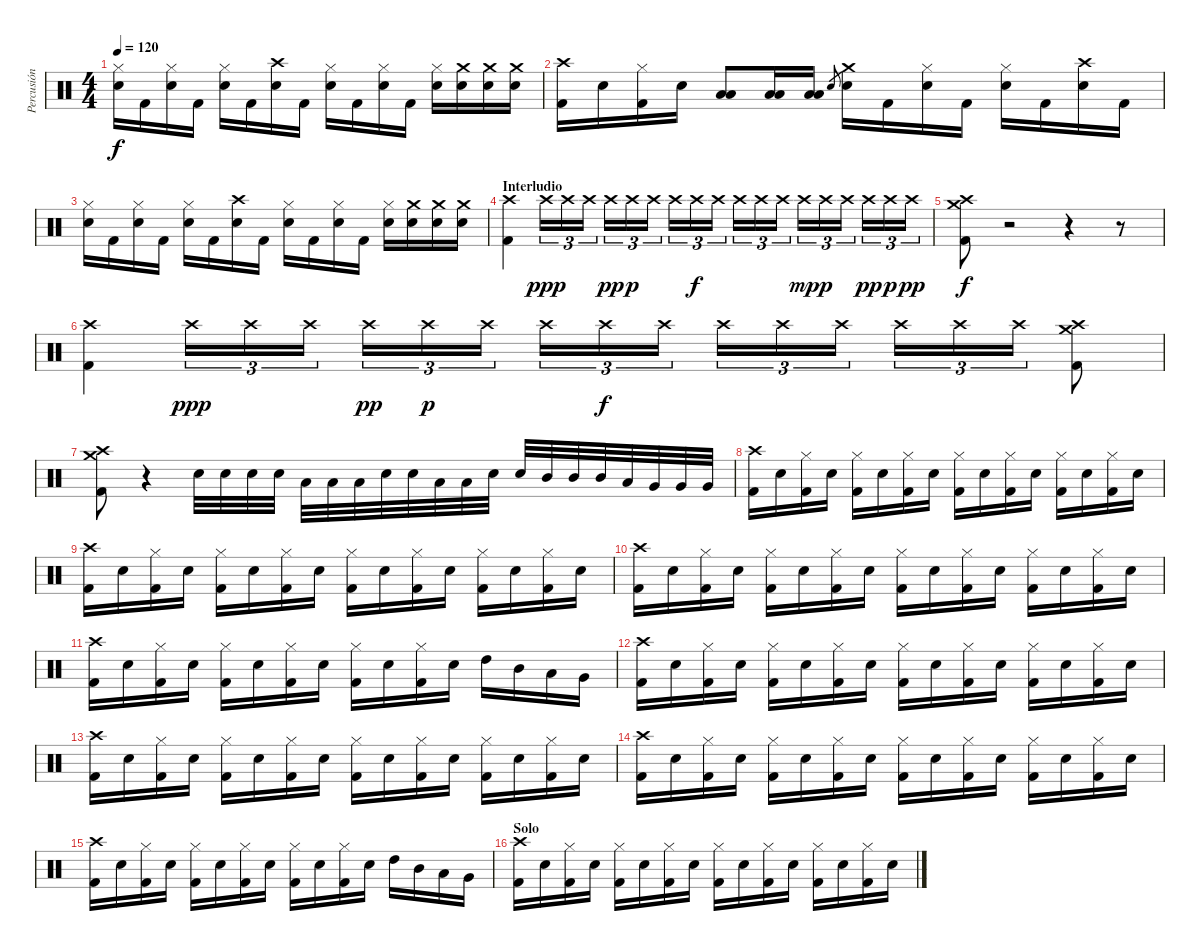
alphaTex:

\track ("Percusión" "Percusión") {instrument percussion}
\staff {score}
\articulation defaults
\ts (4 4)
\tempo 120
\clef neutral
\ks c
("Hi-Hat (closed)" "Snare (hit) 2").16{dy f} "Kick (hit) 2".16 ("Hi-Hat (closed)" "Snare (hit) 2").16 "Kick (hit) 2".16 ("Hi-Hat (closed)" "Snare (hit) 2").16 "Kick (hit) 2".16 ("Crash high (hit)" "Snare (hit) 2").16 "Kick (hit) 2".16 ("Hi-Hat (closed)" "Snare (hit) 2").16 "Kick (hit) 2".16 ("Hi-Hat (closed)" "Snare (hit) 2").16 "Kick (hit) 2".16 ("Hi-Hat (closed)" "Snare (hit) 2").16 ("Crash medium (hit)" "Snare (hit) 2").16 ("Crash medium (hit)" "Snare (hit) 2").16 ("Crash medium (hit)" "Snare (hit) 2").16 |
("Crash high (hit)" "Kick (hit) 2").16 "Snare (hit) 2".16 ("Hi-Hat (closed)" "Kick (hit) 2").16 "Snare (hit) 2".16 ("Low Tom (hit)" "Low Floor Tom (hit)").8 ("Low Tom (hit)" "Low Floor Tom (hit)").16 ("Low Floor Tom (hit)" "Low Tom (hit)").16 "Snare (hit) 2".8{gr} ("Crash medium (hit)" "Snare (hit) 2").16 "Kick (hit) 2".16 ("Hi-Hat (closed)" "Snare (hit) 2").16 "Kick (hit) 2".16 ("Hi-Hat (closed)" "Snare (hit) 2").16 "Kick (hit) 2".16 ("Crash high (hit)" "Snare (hit) 2").16 "Kick (hit) 2".16 |
("Hi-Hat (closed)" "Snare (hit) 2").16 "Kick (hit) 2".16 ("Hi-Hat (closed)" "Snare (hit) 2").16 "Kick (hit) 2".16 ("Hi-Hat (closed)" "Snare (hit) 2").16 "Kick (hit) 2".16 ("Crash high (hit)" "Snare (hit) 2").16 "Kick (hit) 2".16 ("Hi-Hat (closed)" "Snare (hit) 2").16 "Kick (hit) 2".16 ("Hi-Hat (closed)" "Snare (hit) 2").16 "Kick (hit) 2".16 ("Hi-Hat (closed)" "Snare (hit) 2").16 ("Crash medium (hit)" "Snare (hit) 2").16 ("Crash medium (hit)" "Snare (hit) 2").16 ("Crash medium (hit)" "Snare (hit) 2").16 |
\section ("" "Interludio")
("Crash high (hit)" "Kick (hit) 2").4 "Crash high (hit)".16{tu (3 2) dy ppp} "Crash high (hit)".16{tu (3 2)} "Crash high (hit)".16{tu (3 2)} "Crash high (hit)".16{tu (3 2) dy pp} "Crash high (hit)".16{tu (3 2) dy p} "Crash high (hit)".16{tu (3 2)} "Crash high (hit)".16{tu (3 2)} "Crash high (hit)".16{tu (3 2) dy f} "Crash high (hit)".16{tu (3 2)} "Crash high (hit)".16{tu (3 2)} "Crash high (hit)".16{tu (3 2)} "Crash high (hit)".16{tu (3 2)} "Crash high (hit)".16{tu (3 2) dy mp} "Crash high (hit)".16{tu (3 2) dy p} "Crash high (hit)".16{tu (3 2)} "Crash high (hit)".16{tu (3 2) dy pp} "Crash high (hit)".16{tu (3 2) dy p} "Crash high (hit)".16{tu (3 2) dy pp} |
("Crash medium (hit)" "Crash high (hit)" "Kick (hit) 2").8{dy f} r.2 r.4 r.8 |
("Crash high (hit)" "Kick (hit) 2").4 "Crash high (hit)".16{tu (3 2) dy ppp} "Crash high (hit)".16{tu (3 2)} "Crash high (hit)".16{tu (3 2)} "Crash high (hit)".16{tu (3 2) dy pp} "Crash high (hit)".16{tu (3 2) dy p} "Crash high (hit)".16{tu (3 2)} "Crash high (hit)".16{tu (3 2)} "Crash high (hit)".16{tu (3 2) dy f} "Crash high (hit)".16{tu (3 2)} "Crash high (hit)".16{tu (3 2)} "Crash high (hit)".16{tu (3 2)} "Crash high (hit)".16{tu (3 2)} "Crash high (hit)".16{tu (3 2)} "Crash high (hit)".16{tu (3 2)} "Crash high (hit)".16{tu (3 2)} ("Crash high (hit)" "Crash medium (hit)" "Kick (hit) 2").8 |
("Crash high (hit)" "Crash medium (hit)" "Kick (hit) 2").8 r.4 "Snare (hit) 2".32 "Snare (hit) 2".32 "Snare (hit) 2".32 "Snare (hit) 2".32 "Low Floor Tom (hit)".32 "Low Floor Tom (hit)".32 "Low Floor Tom (hit)".32 "Snare (hit) 2".32 "Snare (hit) 2".32 "Low Floor Tom (hit)".32 "Low Floor Tom (hit)".32 "Snare (hit) 2".32 "Snare (hit) 2".32 "Mid Tom (hit)".32 "Mid Tom (hit)".32 "Mid Tom (hit)".32 "Low Tom (hit)".32 "Very Low Tom (hit)".32 "Very Low Tom (hit)".32 "Very Low Tom (hit)".32 |
("Crash high (hit)" "Kick (hit) 2").16 "Snare (hit) 2".16 ("Hi-Hat (closed)" "Kick (hit) 2").16 "Snare (hit) 2".16 ("Hi-Hat (closed)" "Kick (hit) 2").16 "Snare (hit) 2".16 ("Hi-Hat (closed)" "Kick (hit) 2").16 "Snare (hit) 2".16 ("Hi-Hat (closed)" "Kick (hit) 2").16 "Snare (hit) 2".16 ("Hi-Hat (closed)" "Kick (hit) 2").16 "Snare (hit) 2".16 ("Hi-Hat (closed)" "Kick (hit) 2").16 "Snare (hit) 2".16 ("Hi-Hat (closed)" "Kick (hit) 2").16 "Snare (hit) 2".16 |
("Crash high (hit)" "Kick (hit) 2").16 "Snare (hit) 2".16 ("Hi-Hat (closed)" "Kick (hit) 2").16 "Snare (hit) 2".16 ("Hi-Hat (closed)" "Kick (hit) 2").16 "Snare (hit) 2".16 ("Hi-Hat (closed)" "Kick (hit) 2").16 "Snare (hit) 2".16 ("Hi-Hat (closed)" "Kick (hit) 2").16 "Snare (hit) 2".16 ("Hi-Hat (closed)" "Kick (hit) 2").16 "Snare (hit) 2".16 ("Hi-Hat (closed)" "Kick (hit) 2").16 "Snare (hit) 2".16 ("Hi-Hat (closed)" "Kick (hit) 2").16 "Snare (hit) 2".16 |
("Crash high (hit)" "Kick (hit) 2").16 "Snare (hit) 2".16 ("Hi-Hat (closed)" "Kick (hit) 2").16 "Snare (hit) 2".16 ("Hi-Hat (closed)" "Kick (hit) 2").16 "Snare (hit) 2".16 ("Hi-Hat (closed)" "Kick (hit) 2").16 "Snare (hit) 2".16 ("Hi-Hat (closed)" "Kick (hit) 2").16 "Snare (hit) 2".16 ("Hi-Hat (closed)" "Kick (hit) 2").16 "Snare (hit) 2".16 ("Hi-Hat (closed)" "Kick (hit) 2").16 "Snare (hit) 2".16 ("Hi-Hat (closed)" "Kick (hit) 2").16 "Snare (hit) 2".16 |
("Crash high (hit)" "Kick (hit) 2").16 "Snare (hit) 2".16 ("Hi-Hat (closed)" "Kick (hit) 2").16 "Snare (hit) 2".16 ("Hi-Hat (closed)" "Kick (hit) 2").16 "Snare (hit) 2".16 ("Hi-Hat (closed)" "Kick (hit) 2").16 "Snare (hit) 2".16 ("Hi-Hat (closed)" "Kick (hit) 2").16 "Snare (hit) 2".16 ("Hi-Hat (closed)" "Kick (hit) 2").16 "Snare (hit) 2".16 "High Tom (hit)".16 "Mid Tom (hit)".16 "Low Tom (hit)".16 "Very Low Tom (hit)".16 |
("Crash high (hit)" "Kick (hit) 2").16 "Snare (hit) 2".16 ("Hi-Hat (closed)" "Kick (hit) 2").16 "Snare (hit) 2".16 ("Hi-Hat (closed)" "Kick (hit) 2").16 "Snare (hit) 2".16 ("Hi-Hat (closed)" "Kick (hit) 2").16 "Snare (hit) 2".16 ("Hi-Hat (closed)" "Kick (hit) 2").16 "Snare (hit) 2".16 ("Hi-Hat (closed)" "Kick (hit) 2").16 "Snare (hit) 2".16 ("Hi-Hat (closed)" "Kick (hit) 2").16 "Snare (hit) 2".16 ("Hi-Hat (closed)" "Kick (hit) 2").16 "Snare (hit) 2".16 |
("Crash high (hit)" "Kick (hit) 2").16 "Snare (hit) 2".16 ("Hi-Hat (closed)" "Kick (hit) 2").16 "Snare (hit) 2".16 ("Hi-Hat (closed)" "Kick (hit) 2").16 "Snare (hit) 2".16 ("Hi-Hat (closed)" "Kick (hit) 2").16 "Snare (hit) 2".16 ("Hi-Hat (closed)" "Kick (hit) 2").16 "Snare (hit) 2".16 ("Hi-Hat (closed)" "Kick (hit) 2").16 "Snare (hit) 2".16 ("Hi-Hat (closed)" "Kick (hit) 2").16 "Snare (hit) 2".16 ("Hi-Hat (closed)" "Kick (hit) 2").16 "Snare (hit) 2".16 |
("Crash high (hit)" "Kick (hit) 2").16 "Snare (hit) 2".16 ("Hi-Hat (closed)" "Kick (hit) 2").16 "Snare (hit) 2".16 ("Hi-Hat (closed)" "Kick (hit) 2").16 "Snare (hit) 2".16 ("Hi-Hat (closed)" "Kick (hit) 2").16 "Snare (hit) 2".16 ("Hi-Hat (closed)" "Kick (hit) 2").16 "Snare (hit) 2".16 ("Hi-Hat (closed)" "Kick (hit) 2").16 "Snare (hit) 2".16 ("Hi-Hat (closed)" "Kick (hit) 2").16 "Snare (hit) 2".16 ("Hi-Hat (closed)" "Kick (hit) 2").16 "Snare (hit) 2".16 |
("Crash high (hit)" "Kick (hit) 2").16 "Snare (hit) 2".16 ("Hi-Hat (closed)" "Kick (hit) 2").16 "Snare (hit) 2".16 ("Hi-Hat (closed)" "Kick (hit) 2").16 "Snare (hit) 2".16 ("Hi-Hat (closed)" "Kick (hit) 2").16 "Snare (hit) 2".16 ("Hi-Hat (closed)" "Kick (hit) 2").16 "Snare (hit) 2".16 ("Hi-Hat (closed)" "Kick (hit) 2").16 "Snare (hit) 2".16 "High Tom (hit)".16 "Mid Tom (hit)".16 "Low Tom (hit)".16 "Very Low Tom (hit)".16 |
\section ("" "Solo")
("Crash high (hit)" "Kick (hit) 2").16 "Snare (hit) 2".16 ("Hi-Hat (closed)" "Kick (hit) 2").16 "Snare (hit) 2".16 ("Hi-Hat (closed)" "Kick (hit) 2").16 "Snare (hit) 2".16 ("Hi-Hat (closed)" "Kick (hit) 2").16 "Snare (hit) 2".16 ("Hi-Hat (closed)" "Kick (hit) 2").16 "Snare (hit) 2".16 ("Hi-Hat (closed)" "Kick (hit) 2").16 "Snare (hit) 2".16 ("Hi-Hat (closed)" "Kick (hit) 2").16 "Snare (hit) 2".16 ("Hi-Hat (closed)" "Kick (hit) 2").16 "Snare (hit) 2".16
